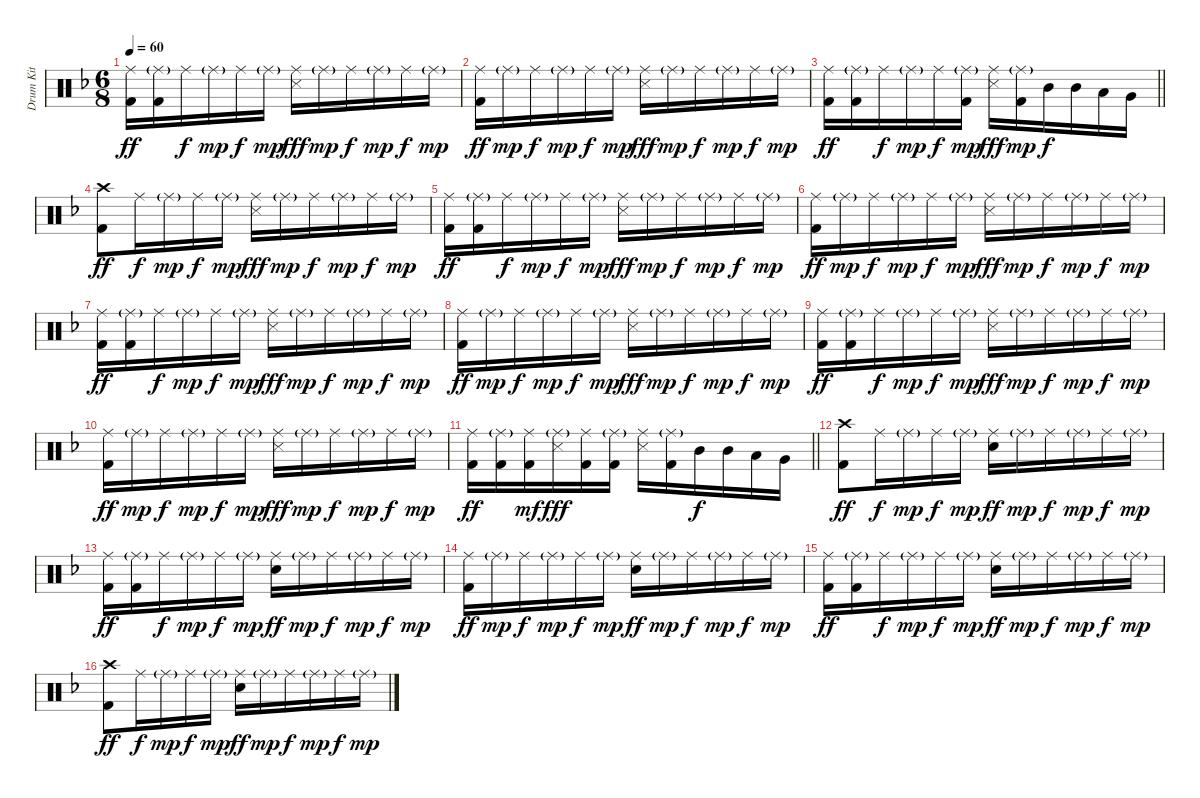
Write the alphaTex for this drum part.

\track ("Drum Kit  (acous.)" "Drum Kit  ") {instrument percussion}
\staff {score}
\articulation defaults
\ts (6 8)
\tempo 60
\clef neutral
\ks dminor
("Ride (middle)" "Kick (hit) 2").16{dy ff} ("Ride (middle)"{g} "Kick (hit) 2").16 "Ride (middle)".16{dy f} "Ride (middle)"{g}.16{dy mp} "Ride (middle)".16{dy f} "Ride (middle)"{g}.16{dy mp} ("Ride (middle)" "Snare (side stick) 3").16{dy fff} "Ride (middle)"{g}.16{dy mp} "Ride (middle)".16{dy f} "Ride (middle)"{g}.16{dy mp} "Ride (middle)".16{dy f} "Ride (middle)"{g}.16{dy mp} |
("Ride (middle)" "Kick (hit) 2").16{dy ff} "Ride (middle)"{g}.16{dy mp} "Ride (middle)".16{dy f} "Ride (middle)"{g}.16{dy mp} "Ride (middle)".16{dy f} "Ride (middle)"{g}.16{dy mp} ("Ride (middle)" "Snare (side stick) 3").16{dy fff} "Ride (middle)"{g}.16{dy mp} "Ride (middle)".16{dy f} "Ride (middle)"{g}.16{dy mp} "Ride (middle)".16{dy f} "Ride (middle)"{g}.16{dy mp} |
\barLineRight lightlight
("Ride (middle)" "Kick (hit) 2").16{dy ff} ("Ride (middle)"{g} "Kick (hit) 2").16 "Ride (middle)".16{dy f} "Ride (middle)"{g}.16{dy mp} "Ride (middle)".16{dy f} ("Ride (middle)"{g} "Kick (hit) 2").16{dy mp} ("Ride (middle)" "Snare (side stick) 3").16{dy fff} ("Ride (middle)"{g} "Kick (hit) 2").16{dy mp} "Mid Tom (hit)".16{dy f} "Mid Tom (hit)".16 "Low Tom (hit)".16 "Very Low Tom (hit)".16 |
\section ("" "")
("Crash high (hit)" "Kick (hit) 2").8{dy ff} "Ride (middle)".16{dy f} "Ride (middle)"{g}.16{dy mp} "Ride (middle)".16{dy f} "Ride (middle)"{g}.16{dy mp} ("Ride (middle)" "Snare (side stick) 3").16{dy fff} "Ride (middle)"{g}.16{dy mp} "Ride (middle)".16{dy f} "Ride (middle)"{g}.16{dy mp} "Ride (middle)".16{dy f} "Ride (middle)"{g}.16{dy mp} |
("Ride (middle)" "Kick (hit) 2").16{dy ff} ("Ride (middle)"{g} "Kick (hit) 2").16 "Ride (middle)".16{dy f} "Ride (middle)"{g}.16{dy mp} "Ride (middle)".16{dy f} "Ride (middle)"{g}.16{dy mp} ("Ride (middle)" "Snare (side stick) 3").16{dy fff} "Ride (middle)"{g}.16{dy mp} "Ride (middle)".16{dy f} "Ride (middle)"{g}.16{dy mp} "Ride (middle)".16{dy f} "Ride (middle)"{g}.16{dy mp} |
("Ride (middle)" "Kick (hit) 2").16{dy ff} "Ride (middle)"{g}.16{dy mp} "Ride (middle)".16{dy f} "Ride (middle)"{g}.16{dy mp} "Ride (middle)".16{dy f} "Ride (middle)"{g}.16{dy mp} ("Ride (middle)" "Snare (side stick) 3").16{dy fff} "Ride (middle)"{g}.16{dy mp} "Ride (middle)".16{dy f} "Ride (middle)"{g}.16{dy mp} "Ride (middle)".16{dy f} "Ride (middle)"{g}.16{dy mp} |
("Ride (middle)" "Kick (hit) 2").16{dy ff} ("Ride (middle)"{g} "Kick (hit) 2").16 "Ride (middle)".16{dy f} "Ride (middle)"{g}.16{dy mp} "Ride (middle)".16{dy f} "Ride (middle)"{g}.16{dy mp} ("Ride (middle)" "Snare (side stick) 3").16{dy fff} "Ride (middle)"{g}.16{dy mp} "Ride (middle)".16{dy f} "Ride (middle)"{g}.16{dy mp} "Ride (middle)".16{dy f} "Ride (middle)"{g}.16{dy mp} |
("Ride (middle)" "Kick (hit) 2").16{dy ff} "Ride (middle)"{g}.16{dy mp} "Ride (middle)".16{dy f} "Ride (middle)"{g}.16{dy mp} "Ride (middle)".16{dy f} "Ride (middle)"{g}.16{dy mp} ("Ride (middle)" "Snare (side stick) 3").16{dy fff} "Ride (middle)"{g}.16{dy mp} "Ride (middle)".16{dy f} "Ride (middle)"{g}.16{dy mp} "Ride (middle)".16{dy f} "Ride (middle)"{g}.16{dy mp} |
("Ride (middle)" "Kick (hit) 2").16{dy ff} ("Ride (middle)"{g} "Kick (hit) 2").16 "Ride (middle)".16{dy f} "Ride (middle)"{g}.16{dy mp} "Ride (middle)".16{dy f} "Ride (middle)"{g}.16{dy mp} ("Ride (middle)" "Snare (side stick) 3").16{dy fff} "Ride (middle)"{g}.16{dy mp} "Ride (middle)".16{dy f} "Ride (middle)"{g}.16{dy mp} "Ride (middle)".16{dy f} "Ride (middle)"{g}.16{dy mp} |
("Ride (middle)" "Kick (hit) 2").16{dy ff} "Ride (middle)"{g}.16{dy mp} "Ride (middle)".16{dy f} "Ride (middle)"{g}.16{dy mp} "Ride (middle)".16{dy f} "Ride (middle)"{g}.16{dy mp} ("Ride (middle)" "Snare (side stick) 3").16{dy fff} "Ride (middle)"{g}.16{dy mp} "Ride (middle)".16{dy f} "Ride (middle)"{g}.16{dy mp} "Ride (middle)".16{dy f} "Ride (middle)"{g}.16{dy mp} |
\barLineRight lightlight
("Ride (middle)" "Kick (hit) 2").16{dy ff} ("Ride (middle)"{g} "Kick (hit) 2").16 ("Ride (middle)" "Kick (hit) 2").16{dy mf} ("Ride (middle)"{g} "Snare (side stick) 3").16{dy fff} ("Ride (middle)" "Kick (hit) 2").16 ("Ride (middle)"{g} "Kick (hit) 2").16 ("Ride (middle)" "Snare (side stick) 3").16 ("Ride (middle)"{g} "Kick (hit) 2").16 "Mid Tom (hit)".16{dy f} "Mid Tom (hit)".16 "Low Tom (hit)".16 "Very Low Tom (hit)".16 |
\section ("" "")
("Crash high (hit)" "Kick (hit) 2").8{dy ff} "Ride (middle)".16{dy f} "Ride (middle)"{g}.16{dy mp} "Ride (middle)".16{dy f} "Ride (middle)"{g}.16{dy mp} ("Ride (middle)" "Electric Snare (hit)").16{dy ff} "Ride (middle)"{g}.16{dy mp} "Ride (middle)".16{dy f} "Ride (middle)"{g}.16{dy mp} "Ride (middle)".16{dy f} "Ride (middle)"{g}.16{dy mp} |
("Ride (middle)" "Kick (hit) 2").16{dy ff} ("Ride (middle)"{g} "Kick (hit) 2").16 "Ride (middle)".16{dy f} "Ride (middle)"{g}.16{dy mp} "Ride (middle)".16{dy f} "Ride (middle)"{g}.16{dy mp} ("Ride (middle)" "Electric Snare (hit)").16{dy ff} "Ride (middle)"{g}.16{dy mp} "Ride (middle)".16{dy f} "Ride (middle)"{g}.16{dy mp} "Ride (middle)".16{dy f} "Ride (middle)"{g}.16{dy mp} |
("Ride (middle)" "Kick (hit) 2").16{dy ff} "Ride (middle)"{g}.16{dy mp} "Ride (middle)".16{dy f} "Ride (middle)"{g}.16{dy mp} "Ride (middle)".16{dy f} "Ride (middle)"{g}.16{dy mp} ("Ride (middle)" "Electric Snare (hit)").16{dy ff} "Ride (middle)"{g}.16{dy mp} "Ride (middle)".16{dy f} "Ride (middle)"{g}.16{dy mp} "Ride (middle)".16{dy f} "Ride (middle)"{g}.16{dy mp} |
("Ride (middle)" "Kick (hit) 2").16{dy ff} ("Ride (middle)"{g} "Kick (hit) 2").16 "Ride (middle)".16{dy f} "Ride (middle)"{g}.16{dy mp} "Ride (middle)".16{dy f} "Ride (middle)"{g}.16{dy mp} ("Ride (middle)" "Electric Snare (hit)").16{dy ff} "Ride (middle)"{g}.16{dy mp} "Ride (middle)".16{dy f} "Ride (middle)"{g}.16{dy mp} "Ride (middle)".16{dy f} "Ride (middle)"{g}.16{dy mp} |
("Crash high (hit)" "Kick (hit) 2").8{dy ff} "Ride (middle)".16{dy f} "Ride (middle)"{g}.16{dy mp} "Ride (middle)".16{dy f} "Ride (middle)"{g}.16{dy mp} ("Ride (middle)" "Electric Snare (hit)").16{dy ff} "Ride (middle)"{g}.16{dy mp} "Ride (middle)".16{dy f} "Ride (middle)"{g}.16{dy mp} "Ride (middle)".16{dy f} "Ride (middle)"{g}.16{dy mp}
